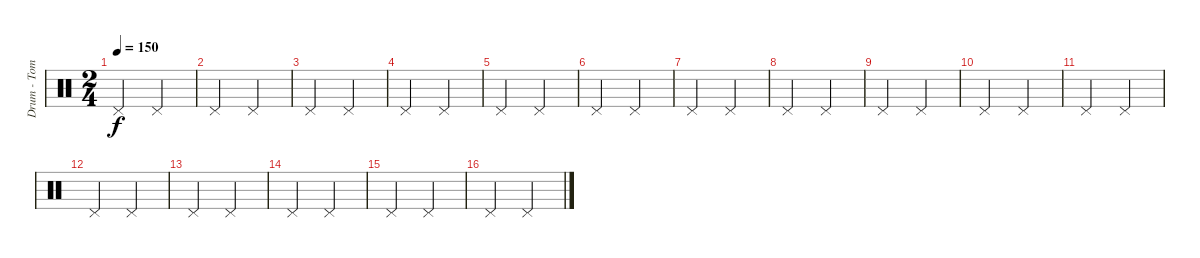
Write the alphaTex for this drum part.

\track ("Drum - Tom" "Drum - Tom") {instrument percussion}
\staff {score}
\articulation defaults
\ts (2 4)
\tempo 150
\clef neutral
\ks c "Pedal Hi-Hat (hit)".4{dy f} "Pedal Hi-Hat (hit)".4
|
"Pedal Hi-Hat (hit)".4 "Pedal Hi-Hat (hit)".4 |
"Pedal Hi-Hat (hit)".4 "Pedal Hi-Hat (hit)".4 |
"Pedal Hi-Hat (hit)".4 "Pedal Hi-Hat (hit)".4 |
"Pedal Hi-Hat (hit)".4 "Pedal Hi-Hat (hit)".4 |
"Pedal Hi-Hat (hit)".4 "Pedal Hi-Hat (hit)".4 |
"Pedal Hi-Hat (hit)".4 "Pedal Hi-Hat (hit)".4 |
"Pedal Hi-Hat (hit)".4 "Pedal Hi-Hat (hit)".4 |
"Pedal Hi-Hat (hit)".4 "Pedal Hi-Hat (hit)".4 |
"Pedal Hi-Hat (hit)".4 "Pedal Hi-Hat (hit)".4 |
"Pedal Hi-Hat (hit)".4 "Pedal Hi-Hat (hit)".4 |
"Pedal Hi-Hat (hit)".4 "Pedal Hi-Hat (hit)".4 |
"Pedal Hi-Hat (hit)".4 "Pedal Hi-Hat (hit)".4 |
"Pedal Hi-Hat (hit)".4 "Pedal Hi-Hat (hit)".4 |
"Pedal Hi-Hat (hit)".4 "Pedal Hi-Hat (hit)".4 |
"Pedal Hi-Hat (hit)".4 "Pedal Hi-Hat (hit)".4
